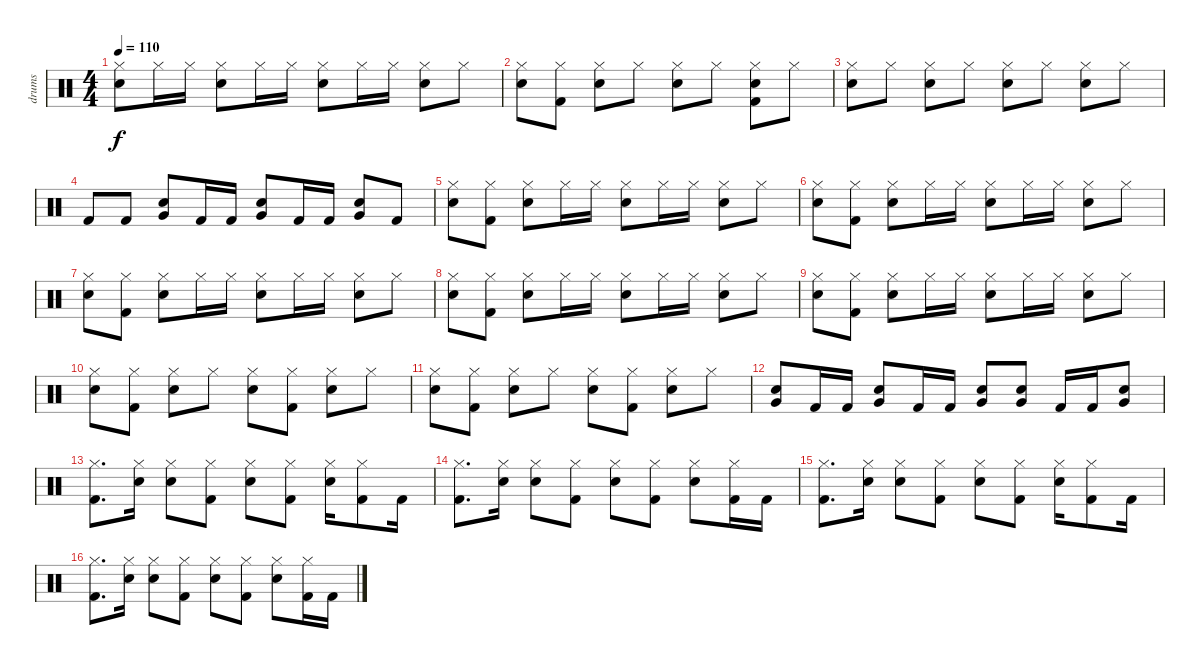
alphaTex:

\track ("drums" "drums") {instrument percussion}
\staff {score}
\articulation defaults
\ts (4 4)
\tempo 110
\clef neutral
\ks c
("Hi-Hat (closed)" "Snare (hit) 2").8{dy f} "Hi-Hat (closed)".16 "Hi-Hat (closed)".16 ("Hi-Hat (closed)" "Snare (hit) 2").8 "Hi-Hat (closed)".16 "Hi-Hat (closed)".16 ("Hi-Hat (closed)" "Snare (hit) 2").8 "Hi-Hat (closed)".16 "Hi-Hat (closed)".16 ("Snare (hit) 2" "Hi-Hat (closed)").8 "Hi-Hat (closed)".8 |
("Hi-Hat (closed)" "Snare (hit) 2").8 ("Hi-Hat (closed)" "Kick (hit) 2").8 ("Hi-Hat (closed)" "Snare (hit) 2").8 "Hi-Hat (closed)".8 ("Hi-Hat (closed)" "Snare (hit) 2").8 "Hi-Hat (closed)".8 ("Kick (hit) 2" "Hi-Hat (closed)" "Snare (hit) 2").8 "Hi-Hat (closed)".8 |
("Hi-Hat (closed)" "Snare (hit) 2").8 "Hi-Hat (closed)".8 ("Hi-Hat (closed)" "Snare (hit) 2").8 "Hi-Hat (closed)".8 ("Hi-Hat (closed)" "Snare (hit) 2").8 "Hi-Hat (closed)".8 ("Hi-Hat (closed)" "Snare (hit) 2").8 "Hi-Hat (closed)".8 |
"Kick (hit) 2".8 "Kick (hit) 2".8 ("Very Low Tom (hit)" "Snare (hit) 2").8 "Kick (hit) 2".16 "Kick (hit) 2".16 ("Snare (hit) 2" "Very Low Tom (hit)").8 "Kick (hit) 2".16 "Kick (hit) 2".16 ("Snare (hit) 2" "Very Low Tom (hit)").8 "Kick (hit) 2".8 |
("Hi-Hat (closed)" "Snare (hit) 2").8 ("Hi-Hat (closed)" "Kick (hit) 2").8 ("Hi-Hat (closed)" "Snare (hit) 2").8 "Hi-Hat (closed)".16 "Hi-Hat (closed)".16 ("Hi-Hat (closed)" "Snare (hit) 2").8 "Hi-Hat (closed)".16 "Hi-Hat (closed)".16 ("Snare (hit) 2" "Hi-Hat (closed)").8 "Hi-Hat (closed)".8 |
("Hi-Hat (closed)" "Snare (hit) 2").8 ("Hi-Hat (closed)" "Kick (hit) 2").8 ("Hi-Hat (closed)" "Snare (hit) 2").8 "Hi-Hat (closed)".16 "Hi-Hat (closed)".16 ("Hi-Hat (closed)" "Snare (hit) 2").8 "Hi-Hat (closed)".16 "Hi-Hat (closed)".16 ("Snare (hit) 2" "Hi-Hat (closed)").8 "Hi-Hat (closed)".8 |
("Hi-Hat (closed)" "Snare (hit) 2").8 ("Hi-Hat (closed)" "Kick (hit) 2").8 ("Hi-Hat (closed)" "Snare (hit) 2").8 "Hi-Hat (closed)".16 "Hi-Hat (closed)".16 ("Hi-Hat (closed)" "Snare (hit) 2").8 "Hi-Hat (closed)".16 "Hi-Hat (closed)".16 ("Snare (hit) 2" "Hi-Hat (closed)").8 "Hi-Hat (closed)".8 |
("Hi-Hat (closed)" "Snare (hit) 2").8 ("Hi-Hat (closed)" "Kick (hit) 2").8 ("Hi-Hat (closed)" "Snare (hit) 2").8 "Hi-Hat (closed)".16 "Hi-Hat (closed)".16 ("Hi-Hat (closed)" "Snare (hit) 2").8 "Hi-Hat (closed)".16 "Hi-Hat (closed)".16 ("Snare (hit) 2" "Hi-Hat (closed)").8 "Hi-Hat (closed)".8 |
("Hi-Hat (closed)" "Snare (hit) 2").8 ("Hi-Hat (closed)" "Kick (hit) 2").8 ("Hi-Hat (closed)" "Snare (hit) 2").8 "Hi-Hat (closed)".16 "Hi-Hat (closed)".16 ("Hi-Hat (closed)" "Snare (hit) 2").8 "Hi-Hat (closed)".16 "Hi-Hat (closed)".16 ("Snare (hit) 2" "Hi-Hat (closed)").8 "Hi-Hat (closed)".8 |
("Hi-Hat (closed)" "Snare (hit) 2").8 ("Hi-Hat (closed)" "Kick (hit) 2").8 ("Hi-Hat (closed)" "Snare (hit) 2").8 "Hi-Hat (closed)".8 ("Hi-Hat (closed)" "Snare (hit) 2").8 ("Hi-Hat (closed)" "Kick (hit) 2").8 ("Hi-Hat (closed)" "Snare (hit) 2").8 "Hi-Hat (closed)".8 |
("Hi-Hat (closed)" "Snare (hit) 2").8 ("Hi-Hat (closed)" "Kick (hit) 2").8 ("Hi-Hat (closed)" "Snare (hit) 2").8 "Hi-Hat (closed)".8 ("Hi-Hat (closed)" "Snare (hit) 2").8 ("Hi-Hat (closed)" "Kick (hit) 2").8 ("Hi-Hat (closed)" "Snare (hit) 2").8 "Hi-Hat (closed)".8 |
("Very Low Tom (hit)" "Snare (hit) 2").8 "Kick (hit) 2".16 "Kick (hit) 2".16 ("Very Low Tom (hit)" "Snare (hit) 2").8 "Kick (hit) 2".16 "Kick (hit) 2".16 ("Very Low Tom (hit)" "Snare (hit) 2").8 ("Very Low Tom (hit)" "Snare (hit) 2").8 "Kick (hit) 2".16 "Kick (hit) 2".16 ("Snare (hit) 2" "Very Low Tom (hit)").8 |
("Kick (hit) 2" "Hi-Hat (closed)").8{d} ("Snare (hit) 2" "Hi-Hat (closed)").16 ("Hi-Hat (closed)" "Snare (hit) 2").8 ("Hi-Hat (closed)" "Kick (hit) 2").8 ("Snare (hit) 2" "Hi-Hat (closed)").8 ("Hi-Hat (closed)" "Kick (hit) 2").8 ("Hi-Hat (closed)" "Snare (hit) 2").16 ("Hi-Hat (closed)" "Kick (hit) 2").8 "Kick (hit) 2".16 |
("Hi-Hat (closed)" "Kick (hit) 2").8{d} ("Snare (hit) 2" "Hi-Hat (closed)").16 ("Snare (hit) 2" "Hi-Hat (closed)").8 ("Kick (hit) 2" "Hi-Hat (closed)").8 ("Hi-Hat (closed)" "Snare (hit) 2").8 ("Hi-Hat (closed)" "Kick (hit) 2").8 ("Hi-Hat (closed)" "Snare (hit) 2").8 ("Hi-Hat (closed)" "Kick (hit) 2").16 "Kick (hit) 2".16 |
("Kick (hit) 2" "Hi-Hat (closed)").8{d} ("Snare (hit) 2" "Hi-Hat (closed)").16 ("Hi-Hat (closed)" "Snare (hit) 2").8 ("Hi-Hat (closed)" "Kick (hit) 2").8 ("Snare (hit) 2" "Hi-Hat (closed)").8 ("Hi-Hat (closed)" "Kick (hit) 2").8 ("Hi-Hat (closed)" "Snare (hit) 2").16 ("Hi-Hat (closed)" "Kick (hit) 2").8 "Kick (hit) 2".16 |
("Hi-Hat (closed)" "Kick (hit) 2").8{d} ("Snare (hit) 2" "Hi-Hat (closed)").16 ("Snare (hit) 2" "Hi-Hat (closed)").8 ("Kick (hit) 2" "Hi-Hat (closed)").8 ("Hi-Hat (closed)" "Snare (hit) 2").8 ("Hi-Hat (closed)" "Kick (hit) 2").8 ("Hi-Hat (closed)" "Snare (hit) 2").8 ("Hi-Hat (closed)" "Kick (hit) 2").16 "Kick (hit) 2".16
